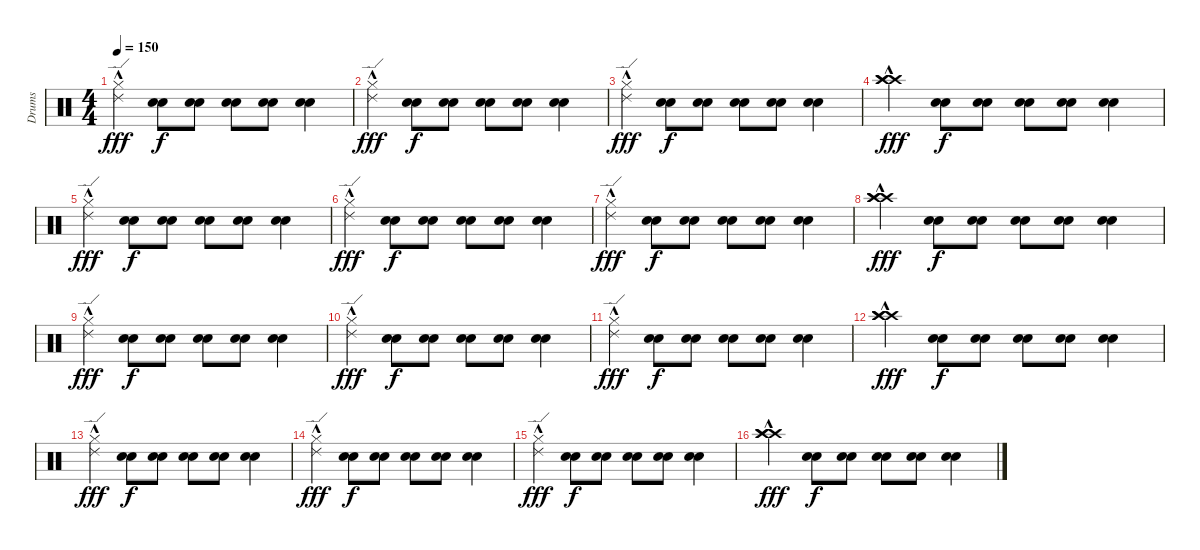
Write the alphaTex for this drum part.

\track ("Drums" "Drums") {instrument percussion}
\staff {score}
\articulation defaults
\ts (4 4)
\tempo 150
\clef neutral
\ks c
("Hi-Hat (closed)" "Ride (edge) 2"{hac}).4{dy fff} ("Electric Snare (hit)" "Electric Snare (hit)").8{dy f} ("Electric Snare (hit)" "Electric Snare (hit)").8 ("Electric Snare (hit)" "Electric Snare (hit)").8 ("Electric Snare (hit)" "Electric Snare (hit)").8 ("Electric Snare (hit)" "Electric Snare (hit)").4 |
("Hi-Hat (closed)" "Ride (edge) 2"{hac}).4{dy fff} ("Electric Snare (hit)" "Electric Snare (hit)").8{dy f} ("Electric Snare (hit)" "Electric Snare (hit)").8 ("Electric Snare (hit)" "Electric Snare (hit)").8 ("Electric Snare (hit)" "Electric Snare (hit)").8 ("Electric Snare (hit)" "Electric Snare (hit)").4 |
("Hi-Hat (closed)" "Ride (edge) 2"{hac}).4{dy fff} ("Electric Snare (hit)" "Electric Snare (hit)").8{dy f} ("Electric Snare (hit)" "Electric Snare (hit)").8 ("Electric Snare (hit)" "Electric Snare (hit)").8 ("Electric Snare (hit)" "Electric Snare (hit)").8 ("Electric Snare (hit)" "Electric Snare (hit)").4 |
("Crash high (hit)"{hac} "Crash high (hit)"{hac} "Crash high (hit)"{hac}).4{dy fff} ("Electric Snare (hit)" "Electric Snare (hit)").8{dy f} ("Electric Snare (hit)" "Electric Snare (hit)").8 ("Electric Snare (hit)" "Electric Snare (hit)").8 ("Electric Snare (hit)" "Electric Snare (hit)").8 ("Electric Snare (hit)" "Electric Snare (hit)").4 |
("Hi-Hat (closed)" "Ride (edge) 2"{hac}).4{dy fff} ("Electric Snare (hit)" "Electric Snare (hit)").8{dy f} ("Electric Snare (hit)" "Electric Snare (hit)").8 ("Electric Snare (hit)" "Electric Snare (hit)").8 ("Electric Snare (hit)" "Electric Snare (hit)").8 ("Electric Snare (hit)" "Electric Snare (hit)").4 |
("Hi-Hat (closed)" "Ride (edge) 2"{hac}).4{dy fff} ("Electric Snare (hit)" "Electric Snare (hit)").8{dy f} ("Electric Snare (hit)" "Electric Snare (hit)").8 ("Electric Snare (hit)" "Electric Snare (hit)").8 ("Electric Snare (hit)" "Electric Snare (hit)").8 ("Electric Snare (hit)" "Electric Snare (hit)").4 |
("Hi-Hat (closed)" "Ride (edge) 2"{hac}).4{dy fff} ("Electric Snare (hit)" "Electric Snare (hit)").8{dy f} ("Electric Snare (hit)" "Electric Snare (hit)").8 ("Electric Snare (hit)" "Electric Snare (hit)").8 ("Electric Snare (hit)" "Electric Snare (hit)").8 ("Electric Snare (hit)" "Electric Snare (hit)").4 |
("Crash high (hit)"{hac} "Crash high (hit)"{hac} "Crash high (hit)"{hac}).4{dy fff} ("Electric Snare (hit)" "Electric Snare (hit)").8{dy f} ("Electric Snare (hit)" "Electric Snare (hit)").8 ("Electric Snare (hit)" "Electric Snare (hit)").8 ("Electric Snare (hit)" "Electric Snare (hit)").8 ("Electric Snare (hit)" "Electric Snare (hit)").4 |
("Hi-Hat (closed)" "Ride (edge) 2"{hac}).4{dy fff} ("Electric Snare (hit)" "Electric Snare (hit)").8{dy f} ("Electric Snare (hit)" "Electric Snare (hit)").8 ("Electric Snare (hit)" "Electric Snare (hit)").8 ("Electric Snare (hit)" "Electric Snare (hit)").8 ("Electric Snare (hit)" "Electric Snare (hit)").4 |
("Hi-Hat (closed)" "Ride (edge) 2"{hac}).4{dy fff} ("Electric Snare (hit)" "Electric Snare (hit)").8{dy f} ("Electric Snare (hit)" "Electric Snare (hit)").8 ("Electric Snare (hit)" "Electric Snare (hit)").8 ("Electric Snare (hit)" "Electric Snare (hit)").8 ("Electric Snare (hit)" "Electric Snare (hit)").4 |
("Hi-Hat (closed)" "Ride (edge) 2"{hac}).4{dy fff} ("Electric Snare (hit)" "Electric Snare (hit)").8{dy f} ("Electric Snare (hit)" "Electric Snare (hit)").8 ("Electric Snare (hit)" "Electric Snare (hit)").8 ("Electric Snare (hit)" "Electric Snare (hit)").8 ("Electric Snare (hit)" "Electric Snare (hit)").4 |
("Crash high (hit)"{hac} "Crash high (hit)"{hac} "Crash high (hit)"{hac}).4{dy fff} ("Electric Snare (hit)" "Electric Snare (hit)").8{dy f} ("Electric Snare (hit)" "Electric Snare (hit)").8 ("Electric Snare (hit)" "Electric Snare (hit)").8 ("Electric Snare (hit)" "Electric Snare (hit)").8 ("Electric Snare (hit)" "Electric Snare (hit)").4 |
("Hi-Hat (closed)" "Ride (edge) 2"{hac}).4{dy fff} ("Electric Snare (hit)" "Electric Snare (hit)").8{dy f} ("Electric Snare (hit)" "Electric Snare (hit)").8 ("Electric Snare (hit)" "Electric Snare (hit)").8 ("Electric Snare (hit)" "Electric Snare (hit)").8 ("Electric Snare (hit)" "Electric Snare (hit)").4 |
("Hi-Hat (closed)" "Ride (edge) 2"{hac}).4{dy fff} ("Electric Snare (hit)" "Electric Snare (hit)").8{dy f} ("Electric Snare (hit)" "Electric Snare (hit)").8 ("Electric Snare (hit)" "Electric Snare (hit)").8 ("Electric Snare (hit)" "Electric Snare (hit)").8 ("Electric Snare (hit)" "Electric Snare (hit)").4 |
("Hi-Hat (closed)" "Ride (edge) 2"{hac}).4{dy fff} ("Electric Snare (hit)" "Electric Snare (hit)").8{dy f} ("Electric Snare (hit)" "Electric Snare (hit)").8 ("Electric Snare (hit)" "Electric Snare (hit)").8 ("Electric Snare (hit)" "Electric Snare (hit)").8 ("Electric Snare (hit)" "Electric Snare (hit)").4 |
("Crash high (hit)"{hac} "Crash high (hit)"{hac} "Crash high (hit)"{hac}).4{dy fff} ("Electric Snare (hit)" "Electric Snare (hit)").8{dy f} ("Electric Snare (hit)" "Electric Snare (hit)").8 ("Electric Snare (hit)" "Electric Snare (hit)").8 ("Electric Snare (hit)" "Electric Snare (hit)").8 ("Electric Snare (hit)" "Electric Snare (hit)").4
